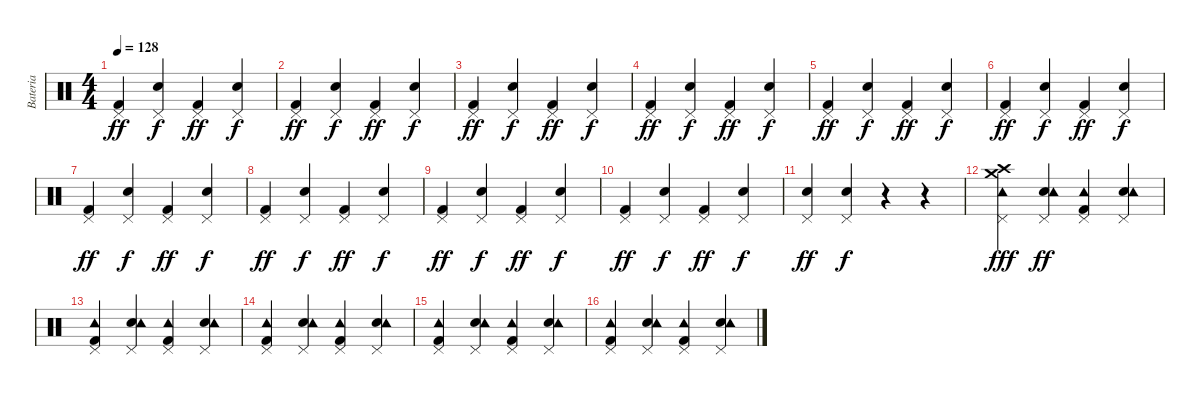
\track ("Bateria" "Bateria") {instrument percussion}
\staff {score}
\articulation defaults
\ts (4 4)
\tempo 128
\clef neutral
\ks c
("Pedal Hi-Hat (hit)" "Kick (hit) 2").4{dy ff} ("Pedal Hi-Hat (hit)" "Electric Snare (hit)").4{dy f} ("Pedal Hi-Hat (hit)" "Kick (hit) 2").4{dy ff} ("Pedal Hi-Hat (hit)" "Electric Snare (hit)").4{dy f} |
("Pedal Hi-Hat (hit)" "Kick (hit) 2").4{dy ff} ("Pedal Hi-Hat (hit)" "Electric Snare (hit)").4{dy f} ("Pedal Hi-Hat (hit)" "Kick (hit) 2").4{dy ff} ("Pedal Hi-Hat (hit)" "Electric Snare (hit)").4{dy f} |
("Pedal Hi-Hat (hit)" "Kick (hit) 2").4{dy ff} ("Pedal Hi-Hat (hit)" "Electric Snare (hit)").4{dy f} ("Pedal Hi-Hat (hit)" "Kick (hit) 2").4{dy ff} ("Pedal Hi-Hat (hit)" "Electric Snare (hit)").4{dy f} |
("Pedal Hi-Hat (hit)" "Kick (hit) 2").4{dy ff} ("Pedal Hi-Hat (hit)" "Electric Snare (hit)").4{dy f} ("Pedal Hi-Hat (hit)" "Kick (hit) 2").4{dy ff} ("Pedal Hi-Hat (hit)" "Electric Snare (hit)").4{dy f} |
("Pedal Hi-Hat (hit)" "Kick (hit) 2").4{dy ff} ("Pedal Hi-Hat (hit)" "Electric Snare (hit)").4{dy f} ("Pedal Hi-Hat (hit)" "Kick (hit) 2").4{dy ff} ("Pedal Hi-Hat (hit)" "Electric Snare (hit)").4{dy f} |
("Pedal Hi-Hat (hit)" "Kick (hit) 2").4{dy ff} ("Pedal Hi-Hat (hit)" "Electric Snare (hit)").4{dy f} ("Pedal Hi-Hat (hit)" "Kick (hit) 2").4{dy ff} ("Pedal Hi-Hat (hit)" "Electric Snare (hit)").4{dy f} |
("Pedal Hi-Hat (hit)" "Kick (hit) 2").4{dy ff} ("Pedal Hi-Hat (hit)" "Electric Snare (hit)").4{dy f} ("Pedal Hi-Hat (hit)" "Kick (hit) 2").4{dy ff} ("Pedal Hi-Hat (hit)" "Electric Snare (hit)").4{dy f} |
("Pedal Hi-Hat (hit)" "Kick (hit) 2").4{dy ff} ("Pedal Hi-Hat (hit)" "Electric Snare (hit)").4{dy f} ("Pedal Hi-Hat (hit)" "Kick (hit) 2").4{dy ff} ("Pedal Hi-Hat (hit)" "Electric Snare (hit)").4{dy f} |
("Pedal Hi-Hat (hit)" "Kick (hit) 2").4{dy ff} ("Pedal Hi-Hat (hit)" "Electric Snare (hit)").4{dy f} ("Pedal Hi-Hat (hit)" "Kick (hit) 2").4{dy ff} ("Pedal Hi-Hat (hit)" "Electric Snare (hit)").4{dy f} |
("Pedal Hi-Hat (hit)" "Kick (hit) 2").4{dy ff} ("Pedal Hi-Hat (hit)" "Electric Snare (hit)").4{dy f} ("Pedal Hi-Hat (hit)" "Kick (hit) 2").4{dy ff} ("Pedal Hi-Hat (hit)" "Electric Snare (hit)").4{dy f} |
("Pedal Hi-Hat (hit)" "Electric Snare (hit)").4{dy ff} ("Pedal Hi-Hat (hit)" "Electric Snare (hit)").4{dy f} r.4 r.4 |
("Pedal Hi-Hat (hit)" "Crash medium (hit)" "Tambourine (hit)" "Crash high (hit)").4{dy fff} ("Pedal Hi-Hat (hit)" "Electric Snare (hit)" "Tambourine (hit)").4{dy ff} ("Pedal Hi-Hat (hit)" "Kick (hit) 2" "Tambourine (hit)").4 ("Pedal Hi-Hat (hit)" "Electric Snare (hit)" "Tambourine (hit)").4 |
("Pedal Hi-Hat (hit)" "Kick (hit) 2" "Tambourine (hit)").4 ("Pedal Hi-Hat (hit)" "Electric Snare (hit)" "Tambourine (hit)").4 ("Pedal Hi-Hat (hit)" "Kick (hit) 2" "Tambourine (hit)").4 ("Pedal Hi-Hat (hit)" "Electric Snare (hit)" "Tambourine (hit)").4 |
("Pedal Hi-Hat (hit)" "Kick (hit) 2" "Tambourine (hit)").4 ("Pedal Hi-Hat (hit)" "Electric Snare (hit)" "Tambourine (hit)").4 ("Pedal Hi-Hat (hit)" "Kick (hit) 2" "Tambourine (hit)").4 ("Pedal Hi-Hat (hit)" "Electric Snare (hit)" "Tambourine (hit)").4 |
("Pedal Hi-Hat (hit)" "Kick (hit) 2" "Tambourine (hit)").4 ("Pedal Hi-Hat (hit)" "Electric Snare (hit)" "Tambourine (hit)").4 ("Pedal Hi-Hat (hit)" "Kick (hit) 2" "Tambourine (hit)").4 ("Pedal Hi-Hat (hit)" "Electric Snare (hit)" "Tambourine (hit)").4 |
("Pedal Hi-Hat (hit)" "Kick (hit) 2" "Tambourine (hit)").4 ("Pedal Hi-Hat (hit)" "Electric Snare (hit)" "Tambourine (hit)").4 ("Pedal Hi-Hat (hit)" "Kick (hit) 2" "Tambourine (hit)").4 ("Pedal Hi-Hat (hit)" "Electric Snare (hit)" "Tambourine (hit)").4
